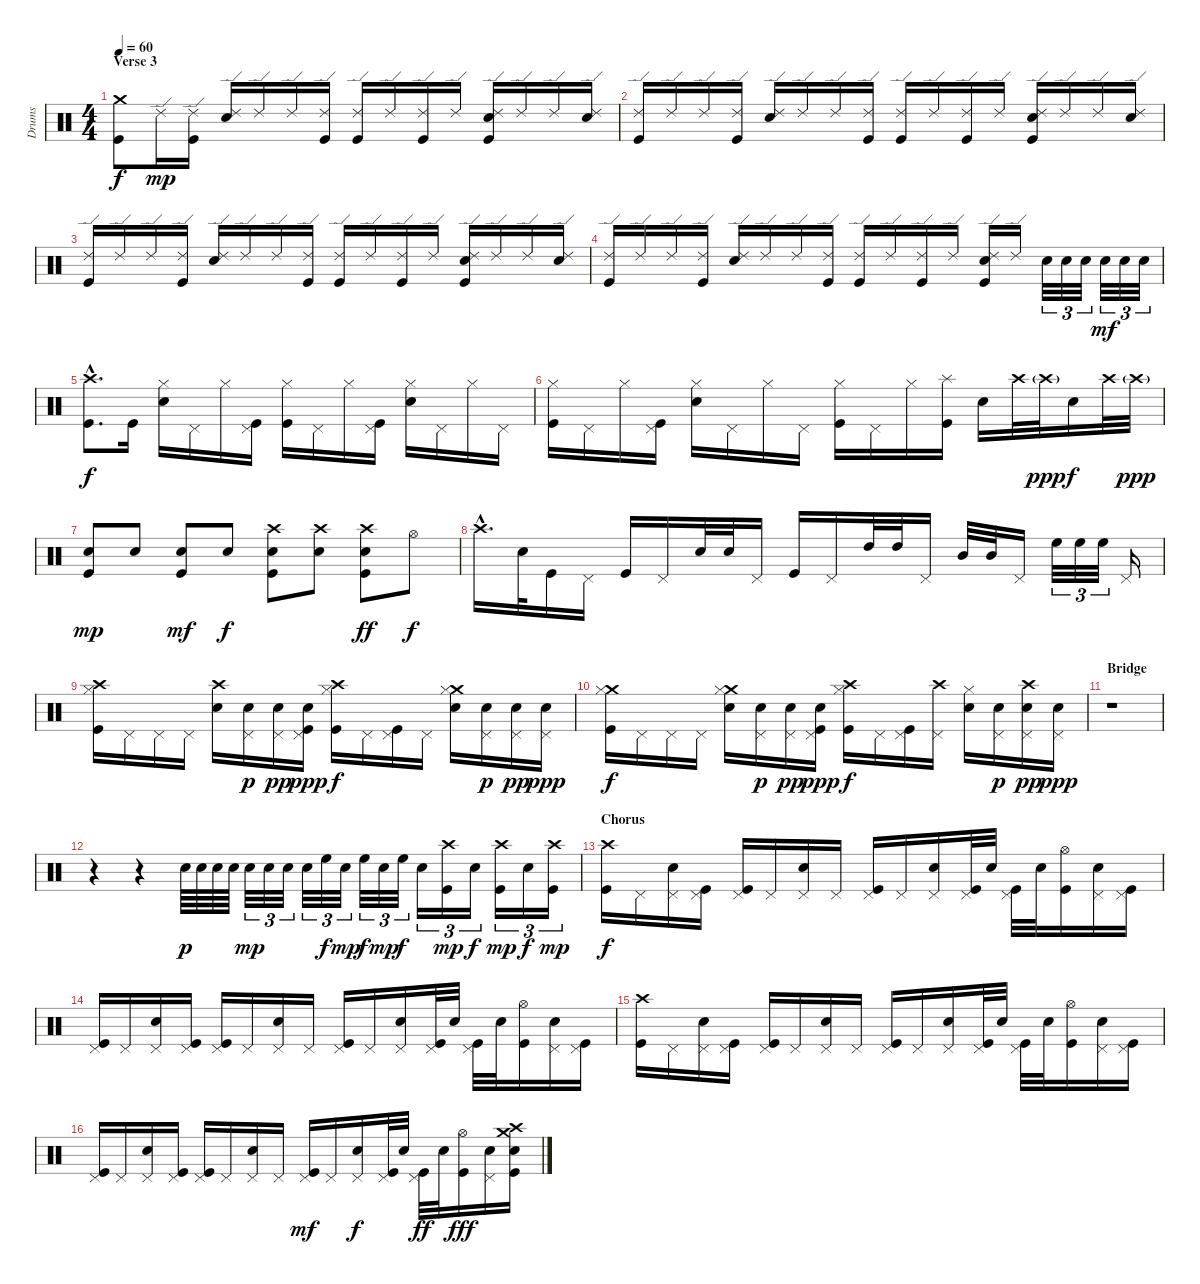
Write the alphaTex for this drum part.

\track ("Drums" "Drums") {instrument percussion}
\staff {score}
\articulation defaults
\ts (4 4)
\section ("" "Verse 3")
\tempo 60
\clef neutral
\ks c
("Crash medium (hit)" "Kick (hit)").8{dy f} "Ride (edge) 2".16{dy mp} ("Ride (edge) 2" "Kick (hit)").16 ("Ride (edge) 2" "Electric Snare (hit)").16 "Ride (edge) 2".16 "Ride (edge) 2".16 ("Ride (edge) 2" "Kick (hit)").16 ("Ride (edge) 2" "Kick (hit)").16 "Ride (edge) 2".16 ("Ride (edge) 2" "Kick (hit)").16 "Ride (edge) 2".16 ("Ride (edge) 2" "Electric Snare (hit)" "Kick (hit)").16 "Ride (edge) 2".16 "Ride (edge) 2".16 ("Ride (edge) 2" "Electric Snare (hit)").16 |
("Ride (edge) 2" "Kick (hit)").16 "Ride (edge) 2".16 "Ride (edge) 2".16 ("Ride (edge) 2" "Kick (hit)").16 ("Ride (edge) 2" "Electric Snare (hit)").16 "Ride (edge) 2".16 "Ride (edge) 2".16 ("Ride (edge) 2" "Kick (hit)").16 ("Ride (edge) 2" "Kick (hit)").16 "Ride (edge) 2".16 ("Ride (edge) 2" "Kick (hit)").16 "Ride (edge) 2".16 ("Ride (edge) 2" "Electric Snare (hit)" "Kick (hit)").16 "Ride (edge) 2".16 "Ride (edge) 2".16 ("Ride (edge) 2" "Electric Snare (hit)").16 |
("Ride (edge) 2" "Kick (hit)").16 "Ride (edge) 2".16 "Ride (edge) 2".16 ("Ride (edge) 2" "Kick (hit)").16 ("Ride (edge) 2" "Electric Snare (hit)").16 "Ride (edge) 2".16 "Ride (edge) 2".16 ("Ride (edge) 2" "Kick (hit)").16 ("Ride (edge) 2" "Kick (hit)").16 "Ride (edge) 2".16 ("Ride (edge) 2" "Kick (hit)").16 "Ride (edge) 2".16 ("Ride (edge) 2" "Electric Snare (hit)" "Kick (hit)").16 "Ride (edge) 2".16 "Ride (edge) 2".16 ("Ride (edge) 2" "Electric Snare (hit)").16 |
("Ride (edge) 2" "Kick (hit)").16 "Ride (edge) 2".16 "Ride (edge) 2".16 ("Ride (edge) 2" "Kick (hit)").16 ("Ride (edge) 2" "Electric Snare (hit)").16 "Ride (edge) 2".16 "Ride (edge) 2".16 ("Ride (edge) 2" "Kick (hit)").16 ("Ride (edge) 2" "Kick (hit)").16 "Ride (edge) 2".16 ("Ride (edge) 2" "Kick (hit)").16 "Ride (edge) 2".16 ("Ride (edge) 2" "Electric Snare (hit)" "Kick (hit)").16 "Ride (edge) 2".16 "Electric Snare (hit)".32{tu (3 2)} "Electric Snare (hit)".32{tu (3 2)} "Electric Snare (hit)".32{tu (3 2)} "Electric Snare (hit)".32{tu (3 2) dy mf} "Electric Snare (hit)".32{tu (3 2)} "Electric Snare (hit)".32{tu (3 2)} |
("Crash high (hit)"{hac} "Kick (hit)"{hac}).8{d dy f} "Kick (hit)".16 ("Hi-Hat (closed)" "Electric Snare (hit)").16 "Pedal Hi-Hat (hit)".16 "Hi-Hat (closed)".16 ("Pedal Hi-Hat (hit)" "Kick (hit)").16 ("Hi-Hat (closed)" "Kick (hit)").16 "Pedal Hi-Hat (hit)".16 "Hi-Hat (closed)".16 ("Pedal Hi-Hat (hit)" "Kick (hit)").16 ("Hi-Hat (closed)" "Electric Snare (hit)").16 "Pedal Hi-Hat (hit)".16 "Hi-Hat (closed)".16 "Pedal Hi-Hat (hit)".16 |
("Hi-Hat (closed)" "Kick (hit)").16 "Pedal Hi-Hat (hit)".16 "Hi-Hat (closed)".16 ("Pedal Hi-Hat (hit)" "Kick (hit)").16 ("Hi-Hat (closed)" "Electric Snare (hit)").16 "Pedal Hi-Hat (hit)".16 "Hi-Hat (closed)".16 "Pedal Hi-Hat (hit)".16 ("Hi-Hat (closed)" "Kick (hit)").16 "Pedal Hi-Hat (hit)".16 "Hi-Hat (closed)".16 ("Splash (hit)" "Kick (hit)").16 "Electric Snare (hit)".16 "Crash high (hit)".32 "Crash high (hit)"{g}.32{dy ppp} "Electric Snare (hit)".16{dy f} "Crash high (hit)".32 "Crash high (hit)"{g}.32{dy ppp} |
("Electric Snare (hit)" "Kick (hit)").8{dy mp} "Electric Snare (hit)".8 ("Electric Snare (hit)" "Kick (hit)").8{dy mf} "Electric Snare (hit)".8{dy f} ("Crash high (hit)" "Electric Snare (hit)" "Kick (hit)").8 ("Crash high (hit)" "Electric Snare (hit)").8 ("Crash high (hit)" "Electric Snare (hit)" "Kick (hit)").8{dy ff} "Hi-Hat (open)".8{dy f} |
"Crash high (hit)"{hac}.16{d} "Electric Snare (hit)".32 "Kick (hit)".16 "Pedal Hi-Hat (hit)".16 "Kick (hit)".16 "Pedal Hi-Hat (hit)".16 "Electric Snare (hit)".32 "Electric Snare (hit)".32 "Pedal Hi-Hat (hit)".16 "Kick (hit)".16 "Pedal Hi-Hat (hit)".16 "High Tom (hit)".32 "High Tom (hit)".32 "Pedal Hi-Hat (hit)".16 "Mid Tom (hit)".32 "Mid Tom (hit)".32 "Pedal Hi-Hat (hit)".16 "High Floor Tom (hit)".32{tu (3 2)} "High Floor Tom (hit)".32{tu (3 2)} "High Floor Tom (hit)".32{tu (3 2)} "Pedal Hi-Hat (hit)".16 |
("Crash high (hit)" "Hi-Hat (closed)" "Kick (hit)").16 "Pedal Hi-Hat (hit)".16 "Pedal Hi-Hat (hit)".16 "Pedal Hi-Hat (hit)".16 ("Crash high (hit)" "Electric Snare (hit)").16 ("Pedal Hi-Hat (hit)" "Electric Snare (hit)").16{dy p} ("Pedal Hi-Hat (hit)" "Electric Snare (hit)").16{dy pp} ("Pedal Hi-Hat (hit)" "Electric Snare (hit)" "Kick (hit)").16{dy ppp} ("Crash high (hit)" "Hi-Hat (closed)" "Kick (hit)").16{dy f} "Pedal Hi-Hat (hit)".16 ("Pedal Hi-Hat (hit)" "Kick (hit)").16 "Pedal Hi-Hat (hit)".16 ("Crash medium (hit)" "Hi-Hat (closed)" "Electric Snare (hit)").16 ("Pedal Hi-Hat (hit)" "Electric Snare (hit)").16{dy p} ("Pedal Hi-Hat (hit)" "Electric Snare (hit)").16{dy pp} ("Pedal Hi-Hat (hit)" "Electric Snare (hit)").16{dy ppp} |
("Crash medium (hit)" "Hi-Hat (closed)" "Kick (hit)").16{dy f} "Pedal Hi-Hat (hit)".16 "Pedal Hi-Hat (hit)".16 "Pedal Hi-Hat (hit)".16 ("Crash medium (hit)" "Hi-Hat (closed)" "Electric Snare (hit)").16 ("Pedal Hi-Hat (hit)" "Electric Snare (hit)").16{dy p} ("Pedal Hi-Hat (hit)" "Electric Snare (hit)").16{dy pp} ("Pedal Hi-Hat (hit)" "Electric Snare (hit)" "Kick (hit)").16{dy ppp} ("Crash high (hit)" "Hi-Hat (closed)" "Kick (hit)").16{dy f} "Pedal Hi-Hat (hit)".16 ("Pedal Hi-Hat (hit)" "Kick (hit)").16 ("Crash high (hit)" "Pedal Hi-Hat (hit)").16 ("Hi-Hat (closed)" "Electric Snare (hit)").16 ("Pedal Hi-Hat (hit)" "Electric Snare (hit)").16{dy p} ("Crash high (hit)" "Pedal Hi-Hat (hit)" "Electric Snare (hit)").16{dy pp} ("Pedal Hi-Hat (hit)" "Electric Snare (hit)").16{dy ppp} |
\section ("" "Bridge")
r.1 |
r.4 r.4 "Electric Snare (hit)".64{dy p} "Electric Snare (hit)".64 "Electric Snare (hit)".64 "Electric Snare (hit)".64 "Electric Snare (hit)".32{tu (3 2) dy mp} "Electric Snare (hit)".32{tu (3 2)} "Electric Snare (hit)".32{tu (3 2)} "Electric Snare (hit)".32{tu (3 2)} "High Floor Tom (hit)".32{tu (3 2) dy f} "Electric Snare (hit)".32{tu (3 2) dy mp} "High Floor Tom (hit)".32{tu (3 2) dy f} "Electric Snare (hit)".32{tu (3 2) dy mp} "High Floor Tom (hit)".32{tu (3 2) dy f} "Electric Snare (hit)".16{tu (3 2)} ("Crash high (hit)" "Kick (hit)").16{tu (3 2) dy mp} "Electric Snare (hit)".16{tu (3 2) dy f} ("Crash high (hit)" "Kick (hit)").16{tu (3 2) dy mp} "Electric Snare (hit)".16{tu (3 2) dy f} ("Crash high (hit)" "Kick (hit)").16{tu (3 2) dy mp} |
\section ("" "Chorus")
("Crash high (hit)" "Kick (hit)").16{dy f} "Pedal Hi-Hat (hit)".16 ("Pedal Hi-Hat (hit)" "Electric Snare (hit)").16 ("Pedal Hi-Hat (hit)" "Kick (hit)").16 ("Pedal Hi-Hat (hit)" "Kick (hit)").16 "Pedal Hi-Hat (hit)".16 ("Pedal Hi-Hat (hit)" "Electric Snare (hit)").16 "Pedal Hi-Hat (hit)".16 ("Pedal Hi-Hat (hit)" "Kick (hit)").16 "Pedal Hi-Hat (hit)".16 ("Pedal Hi-Hat (hit)" "Electric Snare (hit)").16 ("Pedal Hi-Hat (hit)" "Kick (hit)").32 "Electric Snare (hit)".32 ("Pedal Hi-Hat (hit)" "Kick (hit)").32 "Electric Snare (hit)".32 ("Hi-Hat (open)" "Kick (hit)").16 ("Pedal Hi-Hat (hit)" "Electric Snare (hit)").16 ("Pedal Hi-Hat (hit)" "Kick (hit)").16 |
("Pedal Hi-Hat (hit)" "Kick (hit)").16 "Pedal Hi-Hat (hit)".16 ("Pedal Hi-Hat (hit)" "Electric Snare (hit)").16 ("Pedal Hi-Hat (hit)" "Kick (hit)").16 ("Pedal Hi-Hat (hit)" "Kick (hit)").16 "Pedal Hi-Hat (hit)".16 ("Pedal Hi-Hat (hit)" "Electric Snare (hit)").16 "Pedal Hi-Hat (hit)".16 ("Pedal Hi-Hat (hit)" "Kick (hit)").16 "Pedal Hi-Hat (hit)".16 ("Pedal Hi-Hat (hit)" "Electric Snare (hit)").16 ("Pedal Hi-Hat (hit)" "Kick (hit)").32 "Electric Snare (hit)".32 ("Pedal Hi-Hat (hit)" "Kick (hit)").32 "Electric Snare (hit)".32 ("Hi-Hat (open)" "Kick (hit)").16 ("Pedal Hi-Hat (hit)" "Electric Snare (hit)").16 ("Pedal Hi-Hat (hit)" "Kick (hit)").16 |
("Crash high (hit)" "Kick (hit)").16 "Pedal Hi-Hat (hit)".16 ("Pedal Hi-Hat (hit)" "Electric Snare (hit)").16 ("Pedal Hi-Hat (hit)" "Kick (hit)").16 ("Pedal Hi-Hat (hit)" "Kick (hit)").16 "Pedal Hi-Hat (hit)".16 ("Pedal Hi-Hat (hit)" "Electric Snare (hit)").16 "Pedal Hi-Hat (hit)".16 ("Pedal Hi-Hat (hit)" "Kick (hit)").16 "Pedal Hi-Hat (hit)".16 ("Pedal Hi-Hat (hit)" "Electric Snare (hit)").16 ("Pedal Hi-Hat (hit)" "Kick (hit)").32 "Electric Snare (hit)".32 ("Pedal Hi-Hat (hit)" "Kick (hit)").32 "Electric Snare (hit)".32 ("Hi-Hat (open)" "Kick (hit)").16 ("Pedal Hi-Hat (hit)" "Electric Snare (hit)").16 ("Pedal Hi-Hat (hit)" "Kick (hit)").16 |
("Pedal Hi-Hat (hit)" "Kick (hit)").16 "Pedal Hi-Hat (hit)".16 ("Pedal Hi-Hat (hit)" "Electric Snare (hit)").16 ("Pedal Hi-Hat (hit)" "Kick (hit)").16 ("Pedal Hi-Hat (hit)" "Kick (hit)").16 "Pedal Hi-Hat (hit)".16 ("Pedal Hi-Hat (hit)" "Electric Snare (hit)").16 "Pedal Hi-Hat (hit)".16 ("Pedal Hi-Hat (hit)" "Kick (hit)").16{dy mf} "Pedal Hi-Hat (hit)".16 ("Pedal Hi-Hat (hit)" "Electric Snare (hit)").16{dy f} ("Pedal Hi-Hat (hit)" "Kick (hit)").32 "Electric Snare (hit)".32 ("Pedal Hi-Hat (hit)" "Kick (hit)").32{dy ff} "Electric Snare (hit)".32 ("Hi-Hat (open)" "Kick (hit)").16{dy fff} ("Pedal Hi-Hat (hit)" "Electric Snare (hit)").16 ("Crash high (hit)" "Crash medium (hit)" "Electric Snare (hit)" "Kick (hit)").16
